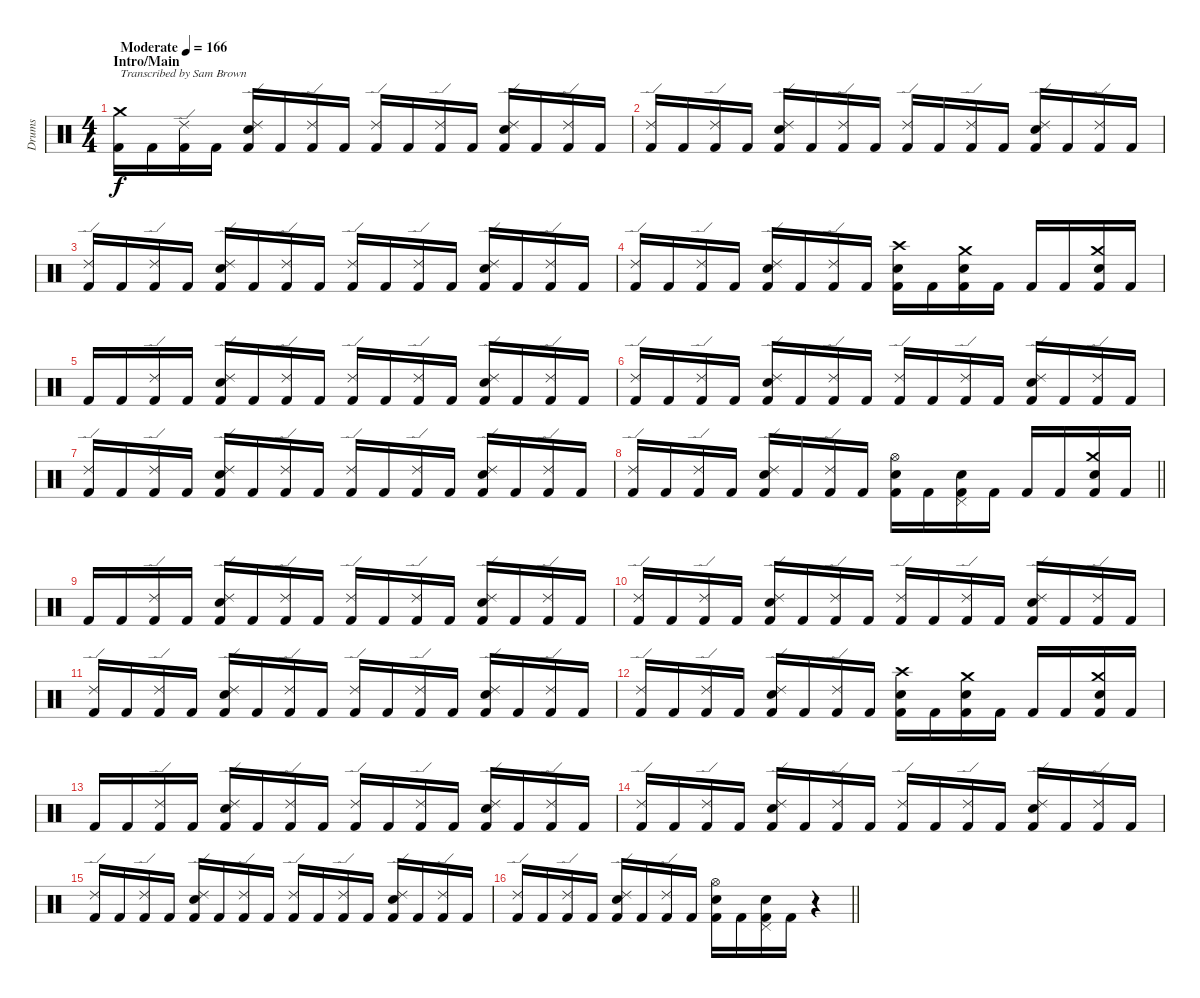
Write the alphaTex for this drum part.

\track ("Drums" "Drums") {instrument percussion}
\staff {score}
\articulation defaults
\ts (4 4)
\section ("" "Intro/Main")
\tempo (166 "Moderate")
\clef neutral
\ks c
("Kick (hit) 2" "Crash medium (hit)").16{txt "Transcribed by Sam Brown" dy f} "Kick (hit) 2".16 ("Kick (hit) 2" "Ride (edge) 2").16 "Kick (hit) 2".16 ("Kick (hit) 2" "Snare (hit) 2" "Ride (edge) 2").16 "Kick (hit) 2".16 ("Kick (hit) 2" "Ride (edge) 2").16 "Kick (hit) 2".16 ("Kick (hit) 2" "Ride (edge) 2").16 "Kick (hit) 2".16 ("Kick (hit) 2" "Ride (edge) 2").16 "Kick (hit) 2".16 ("Kick (hit) 2" "Snare (hit) 2" "Ride (edge) 2").16 "Kick (hit) 2".16 ("Kick (hit) 2" "Ride (edge) 2").16 "Kick (hit) 2".16 |
("Kick (hit) 2" "Ride (edge) 2").16 "Kick (hit) 2".16 ("Kick (hit) 2" "Ride (edge) 2").16 "Kick (hit) 2".16 ("Kick (hit) 2" "Snare (hit) 2" "Ride (edge) 2").16 "Kick (hit) 2".16 ("Kick (hit) 2" "Ride (edge) 2").16 "Kick (hit) 2".16 ("Kick (hit) 2" "Ride (edge) 2").16 "Kick (hit) 2".16 ("Kick (hit) 2" "Ride (edge) 2").16 "Kick (hit) 2".16 ("Kick (hit) 2" "Snare (hit) 2" "Ride (edge) 2").16 "Kick (hit) 2".16 ("Kick (hit) 2" "Ride (edge) 2").16 "Kick (hit) 2".16 |
("Kick (hit) 2" "Ride (edge) 2").16 "Kick (hit) 2".16 ("Kick (hit) 2" "Ride (edge) 2").16 "Kick (hit) 2".16 ("Kick (hit) 2" "Snare (hit) 2" "Ride (edge) 2").16 "Kick (hit) 2".16 ("Kick (hit) 2" "Ride (edge) 2").16 "Kick (hit) 2".16 ("Kick (hit) 2" "Ride (edge) 2").16 "Kick (hit) 2".16 ("Kick (hit) 2" "Ride (edge) 2").16 "Kick (hit) 2".16 ("Kick (hit) 2" "Snare (hit) 2" "Ride (edge) 2").16 "Kick (hit) 2".16 ("Kick (hit) 2" "Ride (edge) 2").16 "Kick (hit) 2".16 |
("Kick (hit) 2" "Ride (edge) 2").16 "Kick (hit) 2".16 ("Kick (hit) 2" "Ride (edge) 2").16 "Kick (hit) 2".16 ("Kick (hit) 2" "Snare (hit) 2" "Ride (edge) 2").16 "Kick (hit) 2".16 ("Kick (hit) 2" "Ride (edge) 2").16 "Kick (hit) 2".16 ("Kick (hit) 2" "Snare (hit) 2" "Crash high (hit)").16 "Kick (hit) 2".16 ("Kick (hit) 2" "Snare (hit) 2" "Crash medium (hit)").16 "Kick (hit) 2".16 "Kick (hit) 2".16 "Kick (hit) 2".16 ("Kick (hit) 2" "Snare (hit) 2" "Crash medium (hit)").16 "Kick (hit) 2".16 |
"Kick (hit) 2".16 "Kick (hit) 2".16 ("Kick (hit) 2" "Ride (edge) 2").16 "Kick (hit) 2".16 ("Kick (hit) 2" "Snare (hit) 2" "Ride (edge) 2").16 "Kick (hit) 2".16 ("Kick (hit) 2" "Ride (edge) 2").16 "Kick (hit) 2".16 ("Kick (hit) 2" "Ride (edge) 2").16 "Kick (hit) 2".16 ("Kick (hit) 2" "Ride (edge) 2").16 "Kick (hit) 2".16 ("Kick (hit) 2" "Snare (hit) 2" "Ride (edge) 2").16 "Kick (hit) 2".16 ("Kick (hit) 2" "Ride (edge) 2").16 "Kick (hit) 2".16 |
("Kick (hit) 2" "Ride (edge) 2").16 "Kick (hit) 2".16 ("Kick (hit) 2" "Ride (edge) 2").16 "Kick (hit) 2".16 ("Kick (hit) 2" "Snare (hit) 2" "Ride (edge) 2").16 "Kick (hit) 2".16 ("Kick (hit) 2" "Ride (edge) 2").16 "Kick (hit) 2".16 ("Kick (hit) 2" "Ride (edge) 2").16 "Kick (hit) 2".16 ("Kick (hit) 2" "Ride (edge) 2").16 "Kick (hit) 2".16 ("Kick (hit) 2" "Snare (hit) 2" "Ride (edge) 2").16 "Kick (hit) 2".16 ("Kick (hit) 2" "Ride (edge) 2").16 "Kick (hit) 2".16 |
("Kick (hit) 2" "Ride (edge) 2").16 "Kick (hit) 2".16 ("Kick (hit) 2" "Ride (edge) 2").16 "Kick (hit) 2".16 ("Kick (hit) 2" "Snare (hit) 2" "Ride (edge) 2").16 "Kick (hit) 2".16 ("Kick (hit) 2" "Ride (edge) 2").16 "Kick (hit) 2".16 ("Kick (hit) 2" "Ride (edge) 2").16 "Kick (hit) 2".16 ("Kick (hit) 2" "Ride (edge) 2").16 "Kick (hit) 2".16 ("Kick (hit) 2" "Snare (hit) 2" "Ride (edge) 2").16 "Kick (hit) 2".16 ("Kick (hit) 2" "Ride (edge) 2").16 "Kick (hit) 2".16 |
\barLineRight lightlight
("Kick (hit) 2" "Ride (edge) 2").16 "Kick (hit) 2".16 ("Kick (hit) 2" "Ride (edge) 2").16 "Kick (hit) 2".16 ("Kick (hit) 2" "Snare (hit) 2" "Ride (edge) 2").16 "Kick (hit) 2".16 ("Kick (hit) 2" "Ride (edge) 2").16 "Kick (hit) 2".16 ("Kick (hit) 2" "Snare (hit) 2" "Hi-Hat (open)").16 "Kick (hit) 2".16 ("Kick (hit) 2" "Snare (hit) 2" "Pedal Hi-Hat (hit)").16 "Kick (hit) 2".16 "Kick (hit) 2".16 "Kick (hit) 2".16 ("Kick (hit) 2" "Snare (hit) 2" "Crash medium (hit)").16 "Kick (hit) 2".16 |
\section ("" "")
"Kick (hit) 2".16 "Kick (hit) 2".16 ("Kick (hit) 2" "Ride (edge) 2").16 "Kick (hit) 2".16 ("Kick (hit) 2" "Snare (hit) 2" "Ride (edge) 2").16 "Kick (hit) 2".16 ("Kick (hit) 2" "Ride (edge) 2").16 "Kick (hit) 2".16 ("Kick (hit) 2" "Ride (edge) 2").16 "Kick (hit) 2".16 ("Kick (hit) 2" "Ride (edge) 2").16 "Kick (hit) 2".16 ("Kick (hit) 2" "Snare (hit) 2" "Ride (edge) 2").16 "Kick (hit) 2".16 ("Kick (hit) 2" "Ride (edge) 2").16 "Kick (hit) 2".16 |
("Kick (hit) 2" "Ride (edge) 2").16 "Kick (hit) 2".16 ("Kick (hit) 2" "Ride (edge) 2").16 "Kick (hit) 2".16 ("Kick (hit) 2" "Snare (hit) 2" "Ride (edge) 2").16 "Kick (hit) 2".16 ("Kick (hit) 2" "Ride (edge) 2").16 "Kick (hit) 2".16 ("Kick (hit) 2" "Ride (edge) 2").16 "Kick (hit) 2".16 ("Kick (hit) 2" "Ride (edge) 2").16 "Kick (hit) 2".16 ("Kick (hit) 2" "Snare (hit) 2" "Ride (edge) 2").16 "Kick (hit) 2".16 ("Kick (hit) 2" "Ride (edge) 2").16 "Kick (hit) 2".16 |
("Kick (hit) 2" "Ride (edge) 2").16 "Kick (hit) 2".16 ("Kick (hit) 2" "Ride (edge) 2").16 "Kick (hit) 2".16 ("Kick (hit) 2" "Snare (hit) 2" "Ride (edge) 2").16 "Kick (hit) 2".16 ("Kick (hit) 2" "Ride (edge) 2").16 "Kick (hit) 2".16 ("Kick (hit) 2" "Ride (edge) 2").16 "Kick (hit) 2".16 ("Kick (hit) 2" "Ride (edge) 2").16 "Kick (hit) 2".16 ("Kick (hit) 2" "Snare (hit) 2" "Ride (edge) 2").16 "Kick (hit) 2".16 ("Kick (hit) 2" "Ride (edge) 2").16 "Kick (hit) 2".16 |
("Kick (hit) 2" "Ride (edge) 2").16 "Kick (hit) 2".16 ("Kick (hit) 2" "Ride (edge) 2").16 "Kick (hit) 2".16 ("Kick (hit) 2" "Snare (hit) 2" "Ride (edge) 2").16 "Kick (hit) 2".16 ("Kick (hit) 2" "Ride (edge) 2").16 "Kick (hit) 2".16 ("Kick (hit) 2" "Snare (hit) 2" "Crash high (hit)").16 "Kick (hit) 2".16 ("Kick (hit) 2" "Snare (hit) 2" "Crash medium (hit)").16 "Kick (hit) 2".16 "Kick (hit) 2".16 "Kick (hit) 2".16 ("Kick (hit) 2" "Snare (hit) 2" "Crash medium (hit)").16 "Kick (hit) 2".16 |
"Kick (hit) 2".16 "Kick (hit) 2".16 ("Kick (hit) 2" "Ride (edge) 2").16 "Kick (hit) 2".16 ("Kick (hit) 2" "Snare (hit) 2" "Ride (edge) 2").16 "Kick (hit) 2".16 ("Kick (hit) 2" "Ride (edge) 2").16 "Kick (hit) 2".16 ("Kick (hit) 2" "Ride (edge) 2").16 "Kick (hit) 2".16 ("Kick (hit) 2" "Ride (edge) 2").16 "Kick (hit) 2".16 ("Kick (hit) 2" "Snare (hit) 2" "Ride (edge) 2").16 "Kick (hit) 2".16 ("Kick (hit) 2" "Ride (edge) 2").16 "Kick (hit) 2".16 |
("Kick (hit) 2" "Ride (edge) 2").16 "Kick (hit) 2".16 ("Kick (hit) 2" "Ride (edge) 2").16 "Kick (hit) 2".16 ("Kick (hit) 2" "Snare (hit) 2" "Ride (edge) 2").16 "Kick (hit) 2".16 ("Kick (hit) 2" "Ride (edge) 2").16 "Kick (hit) 2".16 ("Kick (hit) 2" "Ride (edge) 2").16 "Kick (hit) 2".16 ("Kick (hit) 2" "Ride (edge) 2").16 "Kick (hit) 2".16 ("Kick (hit) 2" "Snare (hit) 2" "Ride (edge) 2").16 "Kick (hit) 2".16 ("Kick (hit) 2" "Ride (edge) 2").16 "Kick (hit) 2".16 |
("Kick (hit) 2" "Ride (edge) 2").16 "Kick (hit) 2".16 ("Kick (hit) 2" "Ride (edge) 2").16 "Kick (hit) 2".16 ("Kick (hit) 2" "Snare (hit) 2" "Ride (edge) 2").16 "Kick (hit) 2".16 ("Kick (hit) 2" "Ride (edge) 2").16 "Kick (hit) 2".16 ("Kick (hit) 2" "Ride (edge) 2").16 "Kick (hit) 2".16 ("Kick (hit) 2" "Ride (edge) 2").16 "Kick (hit) 2".16 ("Kick (hit) 2" "Snare (hit) 2" "Ride (edge) 2").16 "Kick (hit) 2".16 ("Kick (hit) 2" "Ride (edge) 2").16 "Kick (hit) 2".16 |
\barLineRight lightlight
("Kick (hit) 2" "Ride (edge) 2").16 "Kick (hit) 2".16 ("Kick (hit) 2" "Ride (edge) 2").16 "Kick (hit) 2".16 ("Kick (hit) 2" "Snare (hit) 2" "Ride (edge) 2").16 "Kick (hit) 2".16 ("Kick (hit) 2" "Ride (edge) 2").16 "Kick (hit) 2".16 ("Kick (hit) 2" "Snare (hit) 2" "Hi-Hat (open)").16 "Kick (hit) 2".16 ("Kick (hit) 2" "Snare (hit) 2" "Pedal Hi-Hat (hit)").16 "Kick (hit) 2".16 r.4
